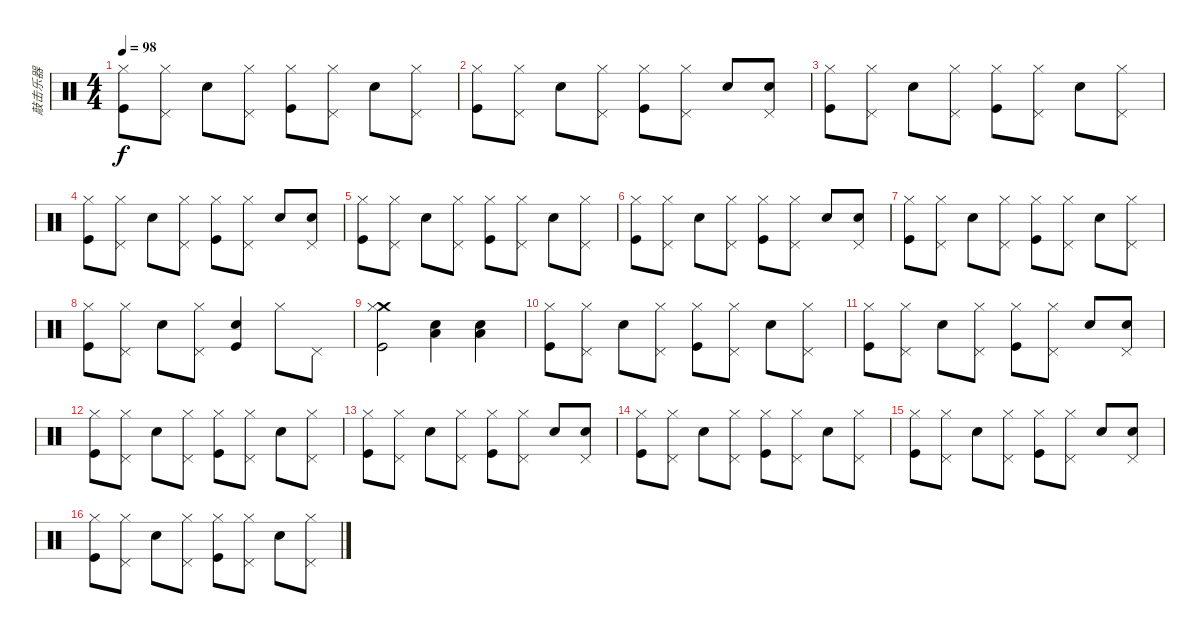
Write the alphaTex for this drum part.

\track ("敲击乐器" "敲击乐器") {instrument percussion}
\staff {score}
\articulation defaults
\ts (4 4)
\tempo 98
\clef neutral
\ks c
("Hi-Hat (closed)" "Kick (hit)").8{dy f} ("Pedal Hi-Hat (hit)" "Hi-Hat (closed)").8 "Snare (hit) 2".8 ("Pedal Hi-Hat (hit)" "Hi-Hat (closed)").8 ("Hi-Hat (closed)" "Kick (hit)").8 ("Pedal Hi-Hat (hit)" "Hi-Hat (closed)").8 "Snare (hit) 2".8 ("Pedal Hi-Hat (hit)" "Hi-Hat (closed)").8 |
("Hi-Hat (closed)" "Kick (hit)").8 ("Pedal Hi-Hat (hit)" "Hi-Hat (closed)").8 "Snare (hit) 2".8 ("Pedal Hi-Hat (hit)" "Hi-Hat (closed)").8 ("Hi-Hat (closed)" "Kick (hit)").8 ("Pedal Hi-Hat (hit)" "Hi-Hat (closed)").8 "Snare (hit) 2".8 ("Pedal Hi-Hat (hit)" "Snare (hit) 2").8 |
("Hi-Hat (closed)" "Kick (hit)").8 ("Pedal Hi-Hat (hit)" "Hi-Hat (closed)").8 "Snare (hit) 2".8 ("Pedal Hi-Hat (hit)" "Hi-Hat (closed)").8 ("Hi-Hat (closed)" "Kick (hit)").8 ("Pedal Hi-Hat (hit)" "Hi-Hat (closed)").8 "Snare (hit) 2".8 ("Pedal Hi-Hat (hit)" "Hi-Hat (closed)").8 |
("Hi-Hat (closed)" "Kick (hit)").8 ("Pedal Hi-Hat (hit)" "Hi-Hat (closed)").8 "Snare (hit) 2".8 ("Pedal Hi-Hat (hit)" "Hi-Hat (closed)").8 ("Hi-Hat (closed)" "Kick (hit)").8 ("Pedal Hi-Hat (hit)" "Hi-Hat (closed)").8 "Snare (hit) 2".8 ("Pedal Hi-Hat (hit)" "Snare (hit) 2").8 |
("Hi-Hat (closed)" "Kick (hit)").8 ("Pedal Hi-Hat (hit)" "Hi-Hat (closed)").8 "Snare (hit) 2".8 ("Pedal Hi-Hat (hit)" "Hi-Hat (closed)").8 ("Hi-Hat (closed)" "Kick (hit)").8 ("Pedal Hi-Hat (hit)" "Hi-Hat (closed)").8 "Snare (hit) 2".8 ("Pedal Hi-Hat (hit)" "Hi-Hat (closed)").8 |
("Hi-Hat (closed)" "Kick (hit)").8 ("Pedal Hi-Hat (hit)" "Hi-Hat (closed)").8 "Snare (hit) 2".8 ("Pedal Hi-Hat (hit)" "Hi-Hat (closed)").8 ("Hi-Hat (closed)" "Kick (hit)").8 ("Pedal Hi-Hat (hit)" "Hi-Hat (closed)").8 "Snare (hit) 2".8 ("Pedal Hi-Hat (hit)" "Snare (hit) 2").8 |
("Hi-Hat (closed)" "Kick (hit)").8 ("Pedal Hi-Hat (hit)" "Hi-Hat (closed)").8 "Snare (hit) 2".8 ("Pedal Hi-Hat (hit)" "Hi-Hat (closed)").8 ("Hi-Hat (closed)" "Kick (hit)").8 ("Pedal Hi-Hat (hit)" "Hi-Hat (closed)").8 "Snare (hit) 2".8 ("Pedal Hi-Hat (hit)" "Hi-Hat (closed)").8 |
("Hi-Hat (closed)" "Kick (hit)").8 ("Pedal Hi-Hat (hit)" "Hi-Hat (closed)").8 "Snare (hit) 2".8 ("Pedal Hi-Hat (hit)" "Hi-Hat (closed)").8 ("Snare (hit) 2" "Kick (hit)").4 "Hi-Hat (closed)".8 "Pedal Hi-Hat (hit)".8 |
("Crash medium (hit)" "Hi-Hat (closed)" "Kick (hit)").2 ("Low Floor Tom (hit)" "Snare (hit) 2").4 ("Low Floor Tom (hit)" "Snare (hit) 2").4 |
("Hi-Hat (closed)" "Kick (hit)").8 ("Pedal Hi-Hat (hit)" "Hi-Hat (closed)").8 "Snare (hit) 2".8 ("Pedal Hi-Hat (hit)" "Hi-Hat (closed)").8 ("Hi-Hat (closed)" "Kick (hit)").8 ("Pedal Hi-Hat (hit)" "Hi-Hat (closed)").8 "Snare (hit) 2".8 ("Pedal Hi-Hat (hit)" "Hi-Hat (closed)").8 |
("Hi-Hat (closed)" "Kick (hit)").8 ("Pedal Hi-Hat (hit)" "Hi-Hat (closed)").8 "Snare (hit) 2".8 ("Pedal Hi-Hat (hit)" "Hi-Hat (closed)").8 ("Hi-Hat (closed)" "Kick (hit)").8 ("Pedal Hi-Hat (hit)" "Hi-Hat (closed)").8 "Snare (hit) 2".8 ("Pedal Hi-Hat (hit)" "Snare (hit) 2").8 |
("Hi-Hat (closed)" "Kick (hit)").8 ("Pedal Hi-Hat (hit)" "Hi-Hat (closed)").8 "Snare (hit) 2".8 ("Pedal Hi-Hat (hit)" "Hi-Hat (closed)").8 ("Hi-Hat (closed)" "Kick (hit)").8 ("Pedal Hi-Hat (hit)" "Hi-Hat (closed)").8 "Snare (hit) 2".8 ("Pedal Hi-Hat (hit)" "Hi-Hat (closed)").8 |
("Hi-Hat (closed)" "Kick (hit)").8 ("Pedal Hi-Hat (hit)" "Hi-Hat (closed)").8 "Snare (hit) 2".8 ("Pedal Hi-Hat (hit)" "Hi-Hat (closed)").8 ("Hi-Hat (closed)" "Kick (hit)").8 ("Pedal Hi-Hat (hit)" "Hi-Hat (closed)").8 "Snare (hit) 2".8 ("Pedal Hi-Hat (hit)" "Snare (hit) 2").8 |
("Hi-Hat (closed)" "Kick (hit)").8 ("Pedal Hi-Hat (hit)" "Hi-Hat (closed)").8 "Snare (hit) 2".8 ("Pedal Hi-Hat (hit)" "Hi-Hat (closed)").8 ("Hi-Hat (closed)" "Kick (hit)").8 ("Pedal Hi-Hat (hit)" "Hi-Hat (closed)").8 "Snare (hit) 2".8 ("Pedal Hi-Hat (hit)" "Hi-Hat (closed)").8 |
("Hi-Hat (closed)" "Kick (hit)").8 ("Pedal Hi-Hat (hit)" "Hi-Hat (closed)").8 "Snare (hit) 2".8 ("Pedal Hi-Hat (hit)" "Hi-Hat (closed)").8 ("Hi-Hat (closed)" "Kick (hit)").8 ("Pedal Hi-Hat (hit)" "Hi-Hat (closed)").8 "Snare (hit) 2".8 ("Pedal Hi-Hat (hit)" "Snare (hit) 2").8 |
("Hi-Hat (closed)" "Kick (hit)").8 ("Pedal Hi-Hat (hit)" "Hi-Hat (closed)").8 "Snare (hit) 2".8 ("Pedal Hi-Hat (hit)" "Hi-Hat (closed)").8 ("Hi-Hat (closed)" "Kick (hit)").8 ("Pedal Hi-Hat (hit)" "Hi-Hat (closed)").8 "Snare (hit) 2".8 ("Pedal Hi-Hat (hit)" "Hi-Hat (closed)").8
